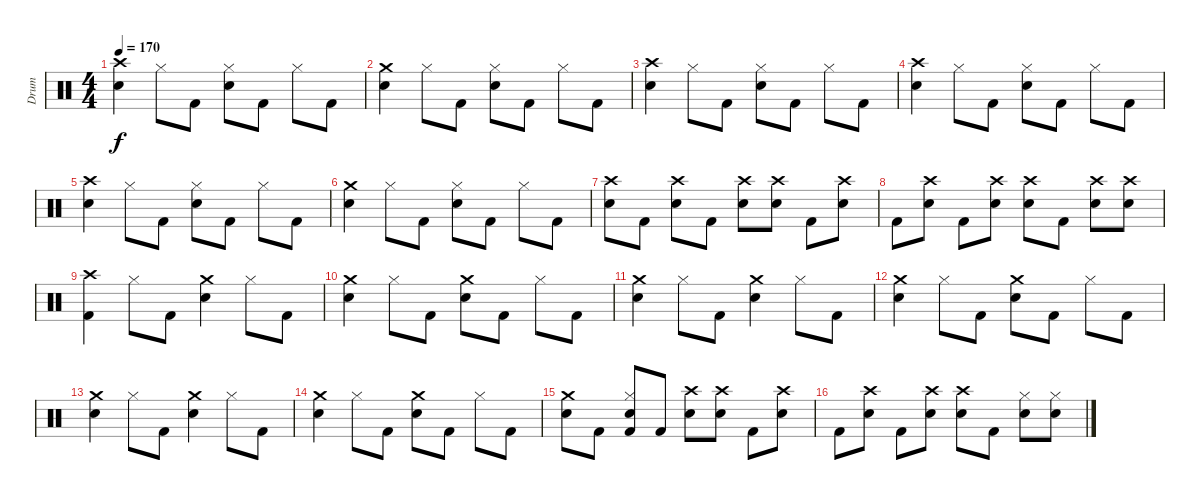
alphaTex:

\track ("Drum" "Drum") {instrument percussion}
\staff {score}
\articulation defaults
\ts (4 4)
\tempo 170
\clef neutral
\ks c
("Crash high (hit)" "Electric Snare (hit)").4{dy f} "Hi-Hat (closed)".8 "Kick (hit) 2".8 ("Hi-Hat (closed)" "Electric Snare (hit)").8 "Kick (hit) 2".8 "Hi-Hat (closed)".8 "Kick (hit) 2".8 |
("Crash medium (hit)" "Electric Snare (hit)").4 "Hi-Hat (closed)".8 "Kick (hit) 2".8 ("Hi-Hat (closed)" "Electric Snare (hit)").8 "Kick (hit) 2".8 "Hi-Hat (closed)".8 "Kick (hit) 2".8 |
("Crash high (hit)" "Electric Snare (hit)").4 "Hi-Hat (closed)".8 "Kick (hit) 2".8 ("Hi-Hat (closed)" "Electric Snare (hit)").8 "Kick (hit) 2".8 "Hi-Hat (closed)".8 "Kick (hit) 2".8 |
("Crash high (hit)" "Electric Snare (hit)").4 "Hi-Hat (closed)".8 "Kick (hit) 2".8 ("Hi-Hat (closed)" "Electric Snare (hit)").8 "Kick (hit) 2".8 "Hi-Hat (closed)".8 "Kick (hit) 2".8 |
("Crash high (hit)" "Electric Snare (hit)").4 "Hi-Hat (closed)".8 "Kick (hit) 2".8 ("Hi-Hat (closed)" "Electric Snare (hit)").8 "Kick (hit) 2".8 "Hi-Hat (closed)".8 "Kick (hit) 2".8 |
("Crash medium (hit)" "Electric Snare (hit)").4 "Hi-Hat (closed)".8 "Kick (hit) 2".8 ("Hi-Hat (closed)" "Electric Snare (hit)").8 "Kick (hit) 2".8 "Hi-Hat (closed)".8 "Kick (hit) 2".8 |
("Crash high (hit)" "Electric Snare (hit)").8 "Kick (hit) 2".8 ("Crash high (hit)" "Electric Snare (hit)").8 "Kick (hit) 2".8 ("Crash high (hit)" "Electric Snare (hit)").8 ("Crash high (hit)" "Electric Snare (hit)").8 "Kick (hit) 2".8 ("Crash high (hit)" "Electric Snare (hit)").8 |
"Kick (hit) 2".8 ("Crash high (hit)" "Electric Snare (hit)").8 "Kick (hit) 2".8 ("Crash high (hit)" "Electric Snare (hit)").8 ("Crash high (hit)" "Electric Snare (hit)").8 "Kick (hit) 2".8 ("Crash high (hit)" "Electric Snare (hit)").8 ("Crash high (hit)" "Electric Snare (hit)").8 |
("Crash high (hit)" "Kick (hit) 2").4 "Hi-Hat (closed)".8 "Kick (hit) 2".8 ("Crash medium (hit)" "Electric Snare (hit)").4 "Hi-Hat (closed)".8 "Kick (hit) 2".8 |
("Crash medium (hit)" "Electric Snare (hit)").4 "Hi-Hat (closed)".8 "Kick (hit) 2".8 ("Crash medium (hit)" "Electric Snare (hit)").8 "Kick (hit) 2".8 "Hi-Hat (closed)".8 "Kick (hit) 2".8 |
("Crash medium (hit)" "Electric Snare (hit)").4 "Hi-Hat (closed)".8 "Kick (hit) 2".8 ("Crash medium (hit)" "Electric Snare (hit)").4 "Hi-Hat (closed)".8 "Kick (hit) 2".8 |
("Crash medium (hit)" "Electric Snare (hit)").4 "Hi-Hat (closed)".8 "Kick (hit) 2".8 ("Crash medium (hit)" "Electric Snare (hit)").8 "Kick (hit) 2".8 "Hi-Hat (closed)".8 "Kick (hit) 2".8 |
("Crash medium (hit)" "Electric Snare (hit)").4 "Hi-Hat (closed)".8 "Kick (hit) 2".8 ("Crash medium (hit)" "Electric Snare (hit)").4 "Hi-Hat (closed)".8 "Kick (hit) 2".8 |
("Crash medium (hit)" "Electric Snare (hit)").4 "Hi-Hat (closed)".8 "Kick (hit) 2".8 ("Crash medium (hit)" "Electric Snare (hit)").8 "Kick (hit) 2".8 "Hi-Hat (closed)".8 "Kick (hit) 2".8 |
("Crash medium (hit)" "Electric Snare (hit)").8 "Kick (hit) 2".8 ("Hi-Hat (closed)" "Electric Snare (hit)" "Kick (hit) 2").8 "Kick (hit) 2".8 ("Crash high (hit)" "Electric Snare (hit)").8 ("Crash high (hit)" "Electric Snare (hit)").8 "Kick (hit) 2".8 ("Crash high (hit)" "Electric Snare (hit)").8 |
"Kick (hit) 2".8 ("Crash high (hit)" "Electric Snare (hit)").8 "Kick (hit) 2".8 ("Crash high (hit)" "Electric Snare (hit)").8 ("Crash high (hit)" "Electric Snare (hit)").8 "Kick (hit) 2".8 ("Hi-Hat (closed)" "Electric Snare (hit)").8 ("Hi-Hat (closed)" "Electric Snare (hit)").8
